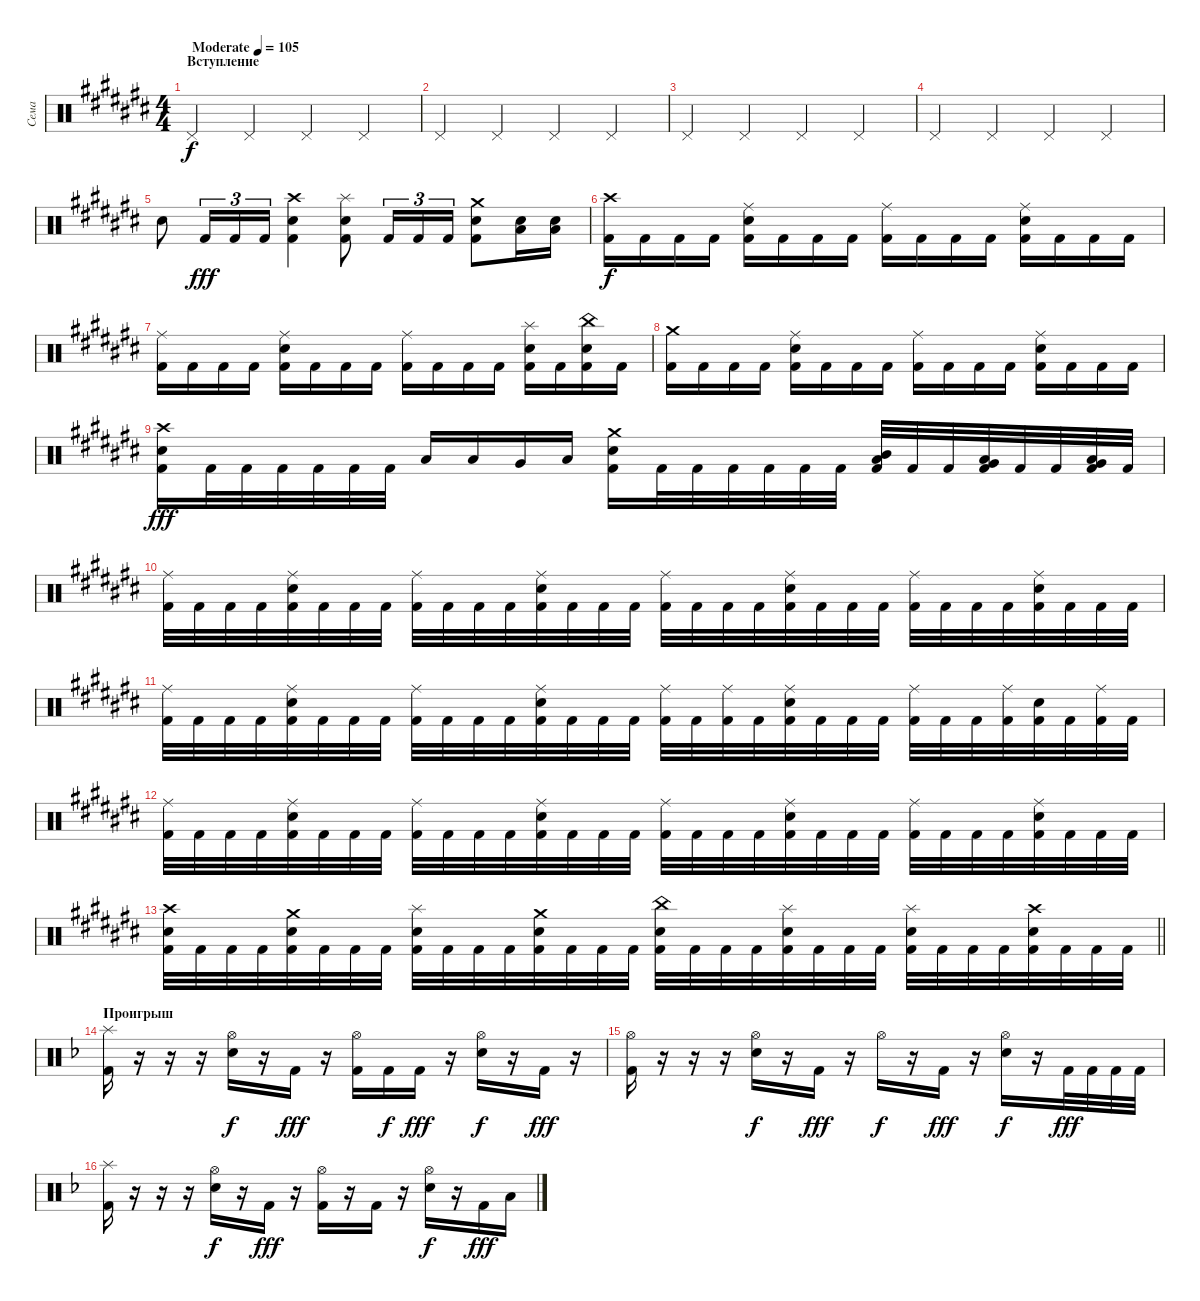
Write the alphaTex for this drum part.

\track ("Сема" "Сема") {instrument percussion}
\staff {score}
\articulation defaults
\ts (4 4)
\section ("" "Вступление")
\tempo (105 "Moderate")
\clef neutral
\ks c# "Pedal Hi-Hat (hit)".4{dy f} "Pedal Hi-Hat (hit)".4 "Pedal Hi-Hat (hit)".4 "Pedal Hi-Hat (hit)".4
|
"Pedal Hi-Hat (hit)".4 "Pedal Hi-Hat (hit)".4 "Pedal Hi-Hat (hit)".4 "Pedal Hi-Hat (hit)".4 |
"Pedal Hi-Hat (hit)".4 "Pedal Hi-Hat (hit)".4 "Pedal Hi-Hat (hit)".4 "Pedal Hi-Hat (hit)".4 |
"Pedal Hi-Hat (hit)".4 "Pedal Hi-Hat (hit)".4 "Pedal Hi-Hat (hit)".4 "Pedal Hi-Hat (hit)".4 |
"Electric Snare (hit)".8 "Kick (hit) 2".16{tu (3 2) dy fff} "Kick (hit) 2".16{tu (3 2)} "Kick (hit) 2".16{tu (3 2)} ("Crash high (hit)" "Electric Snare (hit)" "Kick (hit) 2").4 ("Splash (hit)" "Electric Snare (hit)" "Kick (hit) 2").8 "Kick (hit) 2".16{tu (3 2)} "Kick (hit) 2".16{tu (3 2)} "Kick (hit) 2".16{tu (3 2)} ("Crash medium (hit)" "Electric Snare (hit)" "Kick (hit) 2").8 ("Electric Snare (hit)" "Low Floor Tom (hit)").16 ("Electric Snare (hit)" "Low Floor Tom (hit)").16 |
("Crash high (hit)" "Kick (hit) 2").16{dy f} "Kick (hit) 2".16 "Kick (hit) 2".16 "Kick (hit) 2".16 ("Ride (middle)" "Electric Snare (hit)" "Kick (hit) 2").16 "Kick (hit) 2".16 "Kick (hit) 2".16 "Kick (hit) 2".16 ("Ride (middle)" "Kick (hit) 2").16 "Kick (hit) 2".16 "Kick (hit) 2".16 "Kick (hit) 2".16 ("Ride (middle)" "Electric Snare (hit)" "Kick (hit) 2").16 "Kick (hit) 2".16 "Kick (hit) 2".16 "Kick (hit) 2".16 |
("Ride (middle)" "Kick (hit) 2").16 "Kick (hit) 2".16 "Kick (hit) 2".16 "Kick (hit) 2".16 ("Ride (middle)" "Electric Snare (hit)" "Kick (hit) 2").16 "Kick (hit) 2".16 "Kick (hit) 2".16 "Kick (hit) 2".16 ("Ride (middle)" "Kick (hit) 2").16 "Kick (hit) 2".16 "Kick (hit) 2".16 "Kick (hit) 2".16 ("Splash (hit)" "Electric Snare (hit)" "Kick (hit) 2").16 "Kick (hit) 2".16 ("China (hit)" "Electric Snare (hit)" "Kick (hit) 2").16 "Kick (hit) 2".16 |
("Crash medium (hit)" "Kick (hit) 2").16 "Kick (hit) 2".16 "Kick (hit) 2".16 "Kick (hit) 2".16 ("Ride (middle)" "Electric Snare (hit)" "Kick (hit) 2").16 "Kick (hit) 2".16 "Kick (hit) 2".16 "Kick (hit) 2".16 ("Ride (middle)" "Kick (hit) 2").16 "Kick (hit) 2".16 "Kick (hit) 2".16 "Kick (hit) 2".16 ("Ride (middle)" "Electric Snare (hit)" "Kick (hit) 2").16 "Kick (hit) 2".16 "Kick (hit) 2".16 "Kick (hit) 2".16 |
("Crash high (hit)" "Electric Snare (hit)" "Kick (hit) 2").16{dy fff} "Kick (hit) 2".32 "Kick (hit) 2".32 "Kick (hit) 2".32 "Kick (hit) 2".32 "Kick (hit) 2".32 "Kick (hit) 2".32 "Low Tom (hit)".16 "Low Tom (hit)".16 "Very Low Tom (hit)".16 "Low Floor Tom (hit)".16 ("Crash medium (hit)" "Electric Snare (hit)" "Kick (hit) 2").16 "Kick (hit) 2".32 "Kick (hit) 2".32 "Kick (hit) 2".32 "Kick (hit) 2".32 "Kick (hit) 2".32 "Kick (hit) 2".32 ("Mid Tom (hit)" "Low Tom (hit)" "Kick (hit) 2").32 "Kick (hit) 2".32 "Kick (hit) 2".32 ("Low Tom (hit)" "Very Low Tom (hit)" "Kick (hit) 2").32 "Kick (hit) 2".32 "Kick (hit) 2".32 ("Very Low Tom (hit)" "Low Floor Tom (hit)" "Kick (hit) 2").32 "Kick (hit) 2".32 |
("Ride (middle)" "Kick (hit) 2").32 "Kick (hit) 2".32 "Kick (hit) 2".32 "Kick (hit) 2".32 ("Ride (middle)" "Electric Snare (hit)" "Kick (hit) 2").32 "Kick (hit) 2".32 "Kick (hit) 2".32 "Kick (hit) 2".32 ("Ride (middle)" "Kick (hit) 2").32 "Kick (hit) 2".32 "Kick (hit) 2".32 "Kick (hit) 2".32 ("Ride (middle)" "Electric Snare (hit)" "Kick (hit) 2").32 "Kick (hit) 2".32 "Kick (hit) 2".32 "Kick (hit) 2".32 ("Ride (middle)" "Kick (hit) 2").32 "Kick (hit) 2".32 "Kick (hit) 2".32 "Kick (hit) 2".32 ("Ride (middle)" "Electric Snare (hit)" "Kick (hit) 2").32 "Kick (hit) 2".32 "Kick (hit) 2".32 "Kick (hit) 2".32 ("Ride (middle)" "Kick (hit) 2").32 "Kick (hit) 2".32 "Kick (hit) 2".32 "Kick (hit) 2".32 ("Ride (middle)" "Electric Snare (hit)" "Kick (hit) 2").32 "Kick (hit) 2".32 "Kick (hit) 2".32 "Kick (hit) 2".32 |
("Ride (middle)" "Kick (hit) 2").32 "Kick (hit) 2".32 "Kick (hit) 2".32 "Kick (hit) 2".32 ("Ride (middle)" "Electric Snare (hit)" "Kick (hit) 2").32 "Kick (hit) 2".32 "Kick (hit) 2".32 "Kick (hit) 2".32 ("Ride (middle)" "Kick (hit) 2").32 "Kick (hit) 2".32 "Kick (hit) 2".32 "Kick (hit) 2".32 ("Ride (middle)" "Electric Snare (hit)" "Kick (hit) 2").32 "Kick (hit) 2".32 "Kick (hit) 2".32 "Kick (hit) 2".32 ("Ride (middle)" "Kick (hit) 2").32 "Kick (hit) 2".32 ("Ride (middle)" "Kick (hit) 2").32 "Kick (hit) 2".32 ("Ride (middle)" "Electric Snare (hit)" "Kick (hit) 2").32 "Kick (hit) 2".32 "Kick (hit) 2".32 "Kick (hit) 2".32 ("Ride (middle)" "Kick (hit) 2").32 "Kick (hit) 2".32 "Kick (hit) 2".32 ("Ride (middle)" "Kick (hit) 2").32 ("Electric Snare (hit)" "Kick (hit) 2").32 "Kick (hit) 2".32 ("Ride (middle)" "Kick (hit) 2").32 "Kick (hit) 2".32 |
("Ride (middle)" "Kick (hit) 2").32 "Kick (hit) 2".32 "Kick (hit) 2".32 "Kick (hit) 2".32 ("Ride (middle)" "Electric Snare (hit)" "Kick (hit) 2").32 "Kick (hit) 2".32 "Kick (hit) 2".32 "Kick (hit) 2".32 ("Ride (middle)" "Kick (hit) 2").32 "Kick (hit) 2".32 "Kick (hit) 2".32 "Kick (hit) 2".32 ("Ride (middle)" "Electric Snare (hit)" "Kick (hit) 2").32 "Kick (hit) 2".32 "Kick (hit) 2".32 "Kick (hit) 2".32 ("Ride (middle)" "Kick (hit) 2").32 "Kick (hit) 2".32 "Kick (hit) 2".32 "Kick (hit) 2".32 ("Ride (middle)" "Electric Snare (hit)" "Kick (hit) 2").32 "Kick (hit) 2".32 "Kick (hit) 2".32 "Kick (hit) 2".32 ("Ride (middle)" "Kick (hit) 2").32 "Kick (hit) 2".32 "Kick (hit) 2".32 "Kick (hit) 2".32 ("Ride (middle)" "Electric Snare (hit)" "Kick (hit) 2").32 "Kick (hit) 2".32 "Kick (hit) 2".32 "Kick (hit) 2".32 |
\barLineRight lightlight
("Crash high (hit)" "Electric Snare (hit)" "Kick (hit) 2").32 "Kick (hit) 2".32 "Kick (hit) 2".32 "Kick (hit) 2".32 ("Crash medium (hit)" "Electric Snare (hit)" "Kick (hit) 2").32 "Kick (hit) 2".32 "Kick (hit) 2".32 "Kick (hit) 2".32 ("Splash (hit)" "Electric Snare (hit)" "Kick (hit) 2").32 "Kick (hit) 2".32 "Kick (hit) 2".32 "Kick (hit) 2".32 ("Crash medium (hit)" "Electric Snare (hit)" "Kick (hit) 2").32 "Kick (hit) 2".32 "Kick (hit) 2".32 "Kick (hit) 2".32 ("China (hit)" "Electric Snare (hit)" "Kick (hit) 2").32 "Kick (hit) 2".32 "Kick (hit) 2".32 "Kick (hit) 2".32 ("Splash (hit)" "Electric Snare (hit)" "Kick (hit) 2").32 "Kick (hit) 2".32 "Kick (hit) 2".32 "Kick (hit) 2".32 ("Splash (hit)" "Electric Snare (hit)" "Kick (hit) 2").32 "Kick (hit) 2".32 "Kick (hit) 2".32 "Kick (hit) 2".32 ("Crash high (hit)" "Electric Snare (hit)" "Kick (hit) 2").32 "Kick (hit) 2".32 "Kick (hit) 2".32 "Kick (hit) 2".32 |
\section ("" "Проигрыш")
\ks dminor
("Splash (hit)" "Kick (hit) 2").16 r.16 r.16 r.16 ("Hi-Hat (open)" "Electric Snare (hit)").16{dy f} r.16 "Kick (hit) 2".16{dy fff} r.16 ("Hi-Hat (open)" "Kick (hit) 2").16 "Kick (hit) 2".16{dy f} "Kick (hit) 2".16{dy fff} r.16 ("Hi-Hat (open)" "Electric Snare (hit)").16{dy f} r.16 "Kick (hit) 2".16{dy fff} r.16 |
("Hi-Hat (open)" "Kick (hit) 2").16 r.16 r.16 r.16 ("Hi-Hat (open)" "Electric Snare (hit)").16{dy f} r.16 "Kick (hit) 2".16{dy fff} r.16 "Hi-Hat (open)".16{dy f} r.16 "Kick (hit) 2".16{dy fff} r.16 ("Hi-Hat (open)" "Electric Snare (hit)").16{dy f} r.16 "Kick (hit) 2".32{dy fff} "Kick (hit) 2".32 "Kick (hit) 2".32 "Kick (hit) 2".32 |
("Splash (hit)" "Kick (hit) 2").16 r.16 r.16 r.16 ("Hi-Hat (open)" "Electric Snare (hit)").16{dy f} r.16 "Kick (hit) 2".16{dy fff} r.16 ("Hi-Hat (open)" "Kick (hit) 2").16 r.16 "Kick (hit) 2".16 r.16 ("Hi-Hat (open)" "Electric Snare (hit)").16{dy f} r.16 "Kick (hit) 2".16{dy fff} "Low Floor Tom (hit)".16
